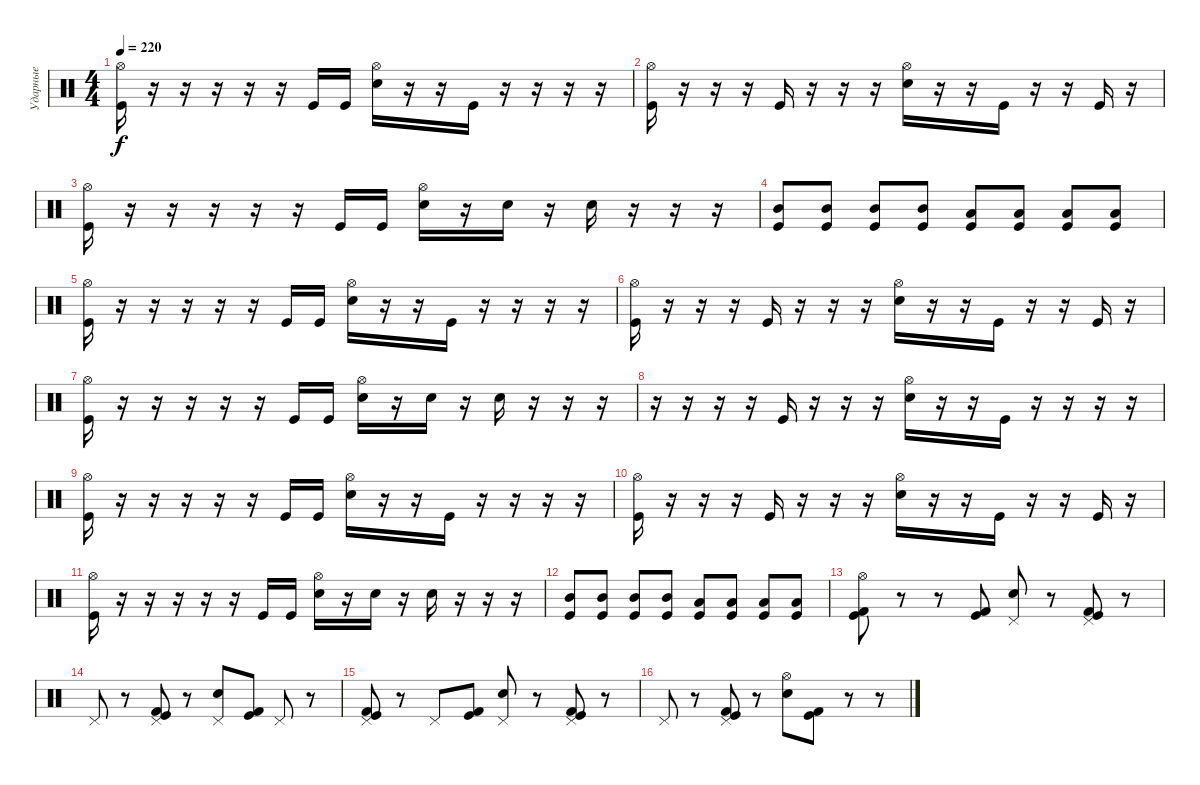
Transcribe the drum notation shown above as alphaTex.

\track ("Ударные" "Ударные") {instrument percussion}
\staff {score}
\articulation defaults
\ts (4 4)
\tempo 220
\clef neutral
\ks c
("Hi-Hat (open)" "Kick (hit)").16{dy f} r.16 r.16 r.16 r.16 r.16 "Kick (hit)".16 "Kick (hit)".16 ("Hi-Hat (open)" "Electric Snare (hit)").16 r.16 r.16 "Kick (hit)".16 r.16 r.16 r.16 r.16 |
("Hi-Hat (open)" "Kick (hit)").16 r.16 r.16 r.16 "Kick (hit)".16 r.16 r.16 r.16 ("Hi-Hat (open)" "Electric Snare (hit)").16 r.16 r.16 "Kick (hit)".16 r.16 r.16 "Kick (hit)".16 r.16 |
("Hi-Hat (open)" "Kick (hit)").16 r.16 r.16 r.16 r.16 r.16 "Kick (hit)".16 "Kick (hit)".16 ("Hi-Hat (open)" "Electric Snare (hit)").16 r.16 "Electric Snare (hit)".16 r.16 "Electric Snare (hit)".16 r.16 r.16 r.16 |
("Mid Tom (hit)" "Kick (hit)").8 ("Mid Tom (hit)" "Kick (hit)").8 ("Mid Tom (hit)" "Kick (hit)").8 ("Mid Tom (hit)" "Kick (hit)").8 ("Low Tom (hit)" "Kick (hit)").8 ("Low Tom (hit)" "Kick (hit)").8 ("Low Tom (hit)" "Kick (hit)").8 ("Low Tom (hit)" "Kick (hit)").8 |
("Hi-Hat (open)" "Kick (hit)").16 r.16 r.16 r.16 r.16 r.16 "Kick (hit)".16 "Kick (hit)".16 ("Hi-Hat (open)" "Electric Snare (hit)").16 r.16 r.16 "Kick (hit)".16 r.16 r.16 r.16 r.16 |
("Hi-Hat (open)" "Kick (hit)").16 r.16 r.16 r.16 "Kick (hit)".16 r.16 r.16 r.16 ("Hi-Hat (open)" "Electric Snare (hit)").16 r.16 r.16 "Kick (hit)".16 r.16 r.16 "Kick (hit)".16 r.16 |
("Hi-Hat (open)" "Kick (hit)").16 r.16 r.16 r.16 r.16 r.16 "Kick (hit)".16 "Kick (hit)".16 ("Hi-Hat (open)" "Electric Snare (hit)").16 r.16 "Electric Snare (hit)".16 r.16 "Electric Snare (hit)".16 r.16 r.16 r.16 |
r.16 r.16 r.16 r.16 "Kick (hit)".16 r.16 r.16 r.16 ("Hi-Hat (open)" "Electric Snare (hit)").16 r.16 r.16 "Kick (hit)".16 r.16 r.16 r.16 r.16 |
("Hi-Hat (open)" "Kick (hit)").16 r.16 r.16 r.16 r.16 r.16 "Kick (hit)".16 "Kick (hit)".16 ("Hi-Hat (open)" "Electric Snare (hit)").16 r.16 r.16 "Kick (hit)".16 r.16 r.16 r.16 r.16 |
("Hi-Hat (open)" "Kick (hit)").16 r.16 r.16 r.16 "Kick (hit)".16 r.16 r.16 r.16 ("Hi-Hat (open)" "Electric Snare (hit)").16 r.16 r.16 "Kick (hit)".16 r.16 r.16 "Kick (hit)".16 r.16 |
("Hi-Hat (open)" "Kick (hit)").16 r.16 r.16 r.16 r.16 r.16 "Kick (hit)".16 "Kick (hit)".16 ("Hi-Hat (open)" "Electric Snare (hit)").16 r.16 "Electric Snare (hit)".16 r.16 "Electric Snare (hit)".16 r.16 r.16 r.16 |
("Mid Tom (hit)" "Kick (hit)").8 ("Mid Tom (hit)" "Kick (hit)").8 ("Mid Tom (hit)" "Kick (hit)").8 ("Mid Tom (hit)" "Kick (hit)").8 ("Low Tom (hit)" "Kick (hit)").8 ("Low Tom (hit)" "Kick (hit)").8 ("Low Tom (hit)" "Kick (hit)").8 ("Low Tom (hit)" "Kick (hit)").8 |
("Hi-Hat (open)" "Kick (hit)" "Kick (hit) 2").8 r.8 r.8 ("Kick (hit)" "Kick (hit) 2").8 ("Pedal Hi-Hat (hit)" "Electric Snare (hit)").8 r.8 ("Pedal Hi-Hat (hit)" "Kick (hit)" "Kick (hit) 2").8 r.8 |
"Pedal Hi-Hat (hit)".8 r.8 ("Pedal Hi-Hat (hit)" "Kick (hit)" "Kick (hit) 2").8 r.8 ("Pedal Hi-Hat (hit)" "Electric Snare (hit)").8 ("Kick (hit)" "Kick (hit) 2").8 "Pedal Hi-Hat (hit)".8 r.8 |
("Pedal Hi-Hat (hit)" "Kick (hit)" "Kick (hit) 2").8 r.8 "Pedal Hi-Hat (hit)".8 ("Kick (hit)" "Kick (hit) 2").8 ("Pedal Hi-Hat (hit)" "Electric Snare (hit)").8 r.8 ("Pedal Hi-Hat (hit)" "Kick (hit)" "Kick (hit) 2").8 r.8 |
"Pedal Hi-Hat (hit)".8 r.8 ("Pedal Hi-Hat (hit)" "Kick (hit)" "Kick (hit) 2").8 r.8 ("Hi-Hat (open)" "Electric Snare (hit)").8 ("Kick (hit)" "Kick (hit) 2").8 r.8 r.8
